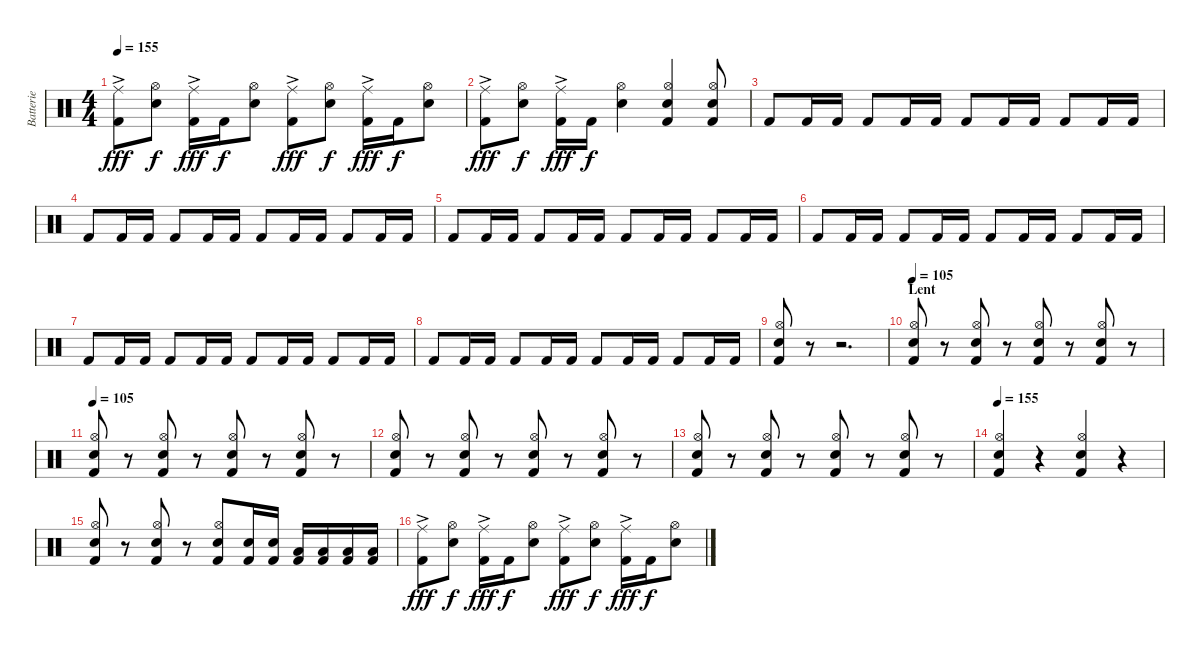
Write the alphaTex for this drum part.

\track ("Batterie" "Batterie") {instrument percussion}
\staff {score}
\articulation defaults
\ts (4 4)
\tempo 155
\clef neutral
\ks c
("Ride (middle)"{ac} "Kick (hit) 2").8{dy fff} ("Hi-Hat (open)" "Snare (hit) 2").8{dy f} ("Ride (middle)"{ac} "Kick (hit) 2").16{dy fff} "Kick (hit) 2".16{dy f} ("Hi-Hat (open)" "Snare (hit) 2").8 ("Ride (middle)"{ac} "Kick (hit) 2").8{dy fff} ("Hi-Hat (open)" "Snare (hit) 2").8{dy f} ("Ride (middle)"{ac} "Kick (hit) 2").16{dy fff} "Kick (hit) 2".16{dy f} ("Hi-Hat (open)" "Snare (hit) 2").8 |
("Ride (middle)"{ac} "Kick (hit) 2").8{dy fff} ("Hi-Hat (open)" "Snare (hit) 2").8{dy f} ("Ride (middle)"{ac} "Kick (hit) 2").16{dy fff} "Kick (hit) 2".16{dy f} ("Hi-Hat (open)" "Snare (hit) 2").4 ("Hi-Hat (open)" "Snare (hit) 2" "Kick (hit) 2").4 ("Hi-Hat (open)" "Snare (hit) 2" "Kick (hit) 2").8 |
"Kick (hit) 2".8 "Kick (hit) 2".16 "Kick (hit) 2".16 "Kick (hit) 2".8 "Kick (hit) 2".16 "Kick (hit) 2".16 "Kick (hit) 2".8 "Kick (hit) 2".16 "Kick (hit) 2".16 "Kick (hit) 2".8 "Kick (hit) 2".16 "Kick (hit) 2".16 |
"Kick (hit) 2".8 "Kick (hit) 2".16 "Kick (hit) 2".16 "Kick (hit) 2".8 "Kick (hit) 2".16 "Kick (hit) 2".16 "Kick (hit) 2".8 "Kick (hit) 2".16 "Kick (hit) 2".16 "Kick (hit) 2".8 "Kick (hit) 2".16 "Kick (hit) 2".16 |
"Kick (hit) 2".8 "Kick (hit) 2".16 "Kick (hit) 2".16 "Kick (hit) 2".8 "Kick (hit) 2".16 "Kick (hit) 2".16 "Kick (hit) 2".8 "Kick (hit) 2".16 "Kick (hit) 2".16 "Kick (hit) 2".8 "Kick (hit) 2".16 "Kick (hit) 2".16 |
"Kick (hit) 2".8 "Kick (hit) 2".16 "Kick (hit) 2".16 "Kick (hit) 2".8 "Kick (hit) 2".16 "Kick (hit) 2".16 "Kick (hit) 2".8 "Kick (hit) 2".16 "Kick (hit) 2".16 "Kick (hit) 2".8 "Kick (hit) 2".16 "Kick (hit) 2".16 |
"Kick (hit) 2".8 "Kick (hit) 2".16 "Kick (hit) 2".16 "Kick (hit) 2".8 "Kick (hit) 2".16 "Kick (hit) 2".16 "Kick (hit) 2".8 "Kick (hit) 2".16 "Kick (hit) 2".16 "Kick (hit) 2".8 "Kick (hit) 2".16 "Kick (hit) 2".16 |
"Kick (hit) 2".8 "Kick (hit) 2".16 "Kick (hit) 2".16 "Kick (hit) 2".8 "Kick (hit) 2".16 "Kick (hit) 2".16 "Kick (hit) 2".8 "Kick (hit) 2".16 "Kick (hit) 2".16 "Kick (hit) 2".8 "Kick (hit) 2".16 "Kick (hit) 2".16 |
("Hi-Hat (open)" "Snare (hit) 2" "Kick (hit) 2").8 r.8 r.2{d} |
\section ("" "Lent")
\tempo 105
("Hi-Hat (open)" "Snare (hit) 2" "Kick (hit) 2").8 r.8 ("Hi-Hat (open)" "Snare (hit) 2" "Kick (hit) 2").8 r.8 ("Hi-Hat (open)" "Snare (hit) 2" "Kick (hit) 2").8 r.8 ("Hi-Hat (open)" "Snare (hit) 2" "Kick (hit) 2").8 r.8 |
\tempo 105
("Hi-Hat (open)" "Snare (hit) 2" "Kick (hit) 2").8 r.8 ("Hi-Hat (open)" "Snare (hit) 2" "Kick (hit) 2").8 r.8 ("Hi-Hat (open)" "Snare (hit) 2" "Kick (hit) 2").8 r.8 ("Hi-Hat (open)" "Snare (hit) 2" "Kick (hit) 2").8 r.8 |
("Hi-Hat (open)" "Snare (hit) 2" "Kick (hit) 2").8 r.8 ("Hi-Hat (open)" "Snare (hit) 2" "Kick (hit) 2").8 r.8 ("Hi-Hat (open)" "Snare (hit) 2" "Kick (hit) 2").8 r.8 ("Hi-Hat (open)" "Snare (hit) 2" "Kick (hit) 2").8 r.8 |
("Hi-Hat (open)" "Snare (hit) 2" "Kick (hit) 2").8 r.8 ("Hi-Hat (open)" "Snare (hit) 2" "Kick (hit) 2").8 r.8 ("Hi-Hat (open)" "Snare (hit) 2" "Kick (hit) 2").8 r.8 ("Hi-Hat (open)" "Snare (hit) 2" "Kick (hit) 2").8 r.8 |
\tempo 155
("Hi-Hat (open)" "Snare (hit) 2" "Kick (hit) 2").4 r.4 ("Hi-Hat (open)" "Snare (hit) 2" "Kick (hit) 2").4 r.4 |
("Hi-Hat (open)" "Snare (hit) 2" "Kick (hit) 2").8 r.8 ("Hi-Hat (open)" "Snare (hit) 2" "Kick (hit) 2").8 r.8 ("Hi-Hat (open)" "Snare (hit) 2" "Kick (hit) 2").8 ("Snare (hit) 2" "Kick (hit) 2").16 ("Snare (hit) 2" "Kick (hit) 2").16 ("Low Tom (hit)" "Kick (hit) 2").16 ("Low Tom (hit)" "Kick (hit) 2").16 ("Low Floor Tom (hit)" "Kick (hit) 2").16 ("Low Floor Tom (hit)" "Kick (hit) 2").16 |
("Ride (middle)"{ac} "Kick (hit) 2").8{dy fff} ("Hi-Hat (open)" "Snare (hit) 2").8{dy f} ("Ride (middle)"{ac} "Kick (hit) 2").16{dy fff} "Kick (hit) 2".16{dy f} ("Hi-Hat (open)" "Snare (hit) 2").8 ("Ride (middle)"{ac} "Kick (hit) 2").8{dy fff} ("Hi-Hat (open)" "Snare (hit) 2").8{dy f} ("Ride (middle)"{ac} "Kick (hit) 2").16{dy fff} "Kick (hit) 2".16{dy f} ("Hi-Hat (open)" "Snare (hit) 2").8
